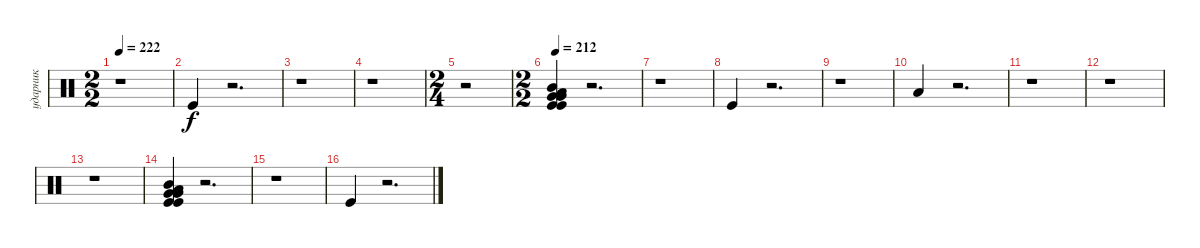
\track ("ударник" "ударник") {instrument percussion}
\staff {score}
\articulation defaults
\ts (2 2)
\tempo 222
\clef neutral
\ks c
r.1{dy f} |
"Kick (hit)".4 r.2{d} |
r.1 |
r.1 |
\ts (2 4)
r.2 |
\ts (2 2)
\tempo 212
("Kick (hit)" "Low Floor Tom (hit)" "Mid Tom (hit)" "Kick (hit)" "Very Low Tom (hit)" "Very Low Tom (hit)").4 r.2{d} |
r.1 |
"Kick (hit)".4 r.2{d} |
r.1 |
"Low Floor Tom (hit)".4 r.2{d} |
r.1 |
r.1 |
r.1 |
("Kick (hit)" "Low Floor Tom (hit)" "Mid Tom (hit)" "Kick (hit)" "Very Low Tom (hit)" "Very Low Tom (hit)").4 r.2{d} |
r.1 |
"Kick (hit)".4 r.2{d}
